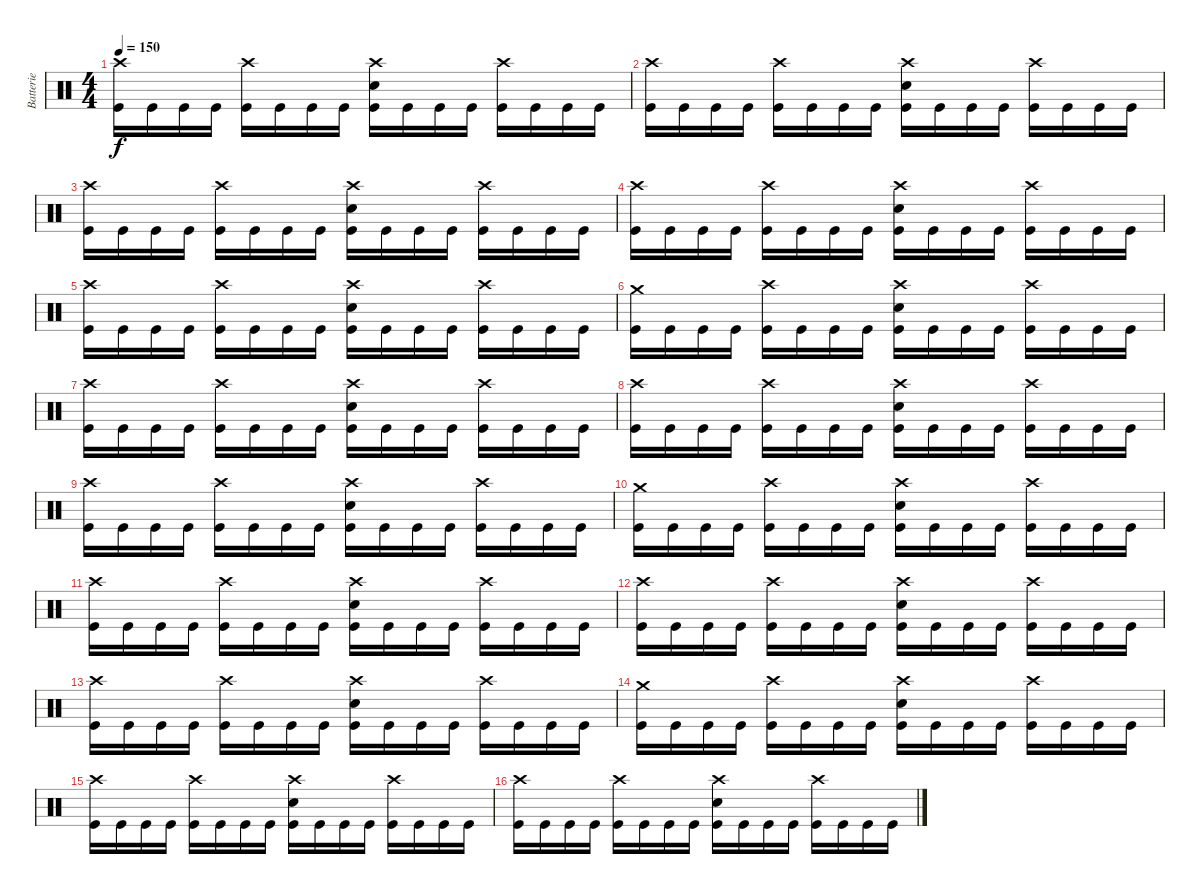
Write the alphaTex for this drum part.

\track ("Batterie" "Batterie") {instrument percussion}
\staff {score}
\articulation defaults
\ts (4 4)
\tempo 150
\clef neutral
\ks c
("Crash high (hit)" "Kick (hit)").16{dy f} "Kick (hit)".16 "Kick (hit)".16 "Kick (hit)".16 ("Crash high (hit)" "Kick (hit)").16 "Kick (hit)".16 "Kick (hit)".16 "Kick (hit)".16 ("Crash high (hit)" "Electric Snare (hit)" "Kick (hit)").16 "Kick (hit)".16 "Kick (hit)".16 "Kick (hit)".16 ("Crash high (hit)" "Kick (hit)").16 "Kick (hit)".16 "Kick (hit)".16 "Kick (hit)".16 |
("Crash high (hit)" "Kick (hit)").16 "Kick (hit)".16 "Kick (hit)".16 "Kick (hit)".16 ("Crash high (hit)" "Kick (hit)").16 "Kick (hit)".16 "Kick (hit)".16 "Kick (hit)".16 ("Crash high (hit)" "Electric Snare (hit)" "Kick (hit)").16 "Kick (hit)".16 "Kick (hit)".16 "Kick (hit)".16 ("Crash high (hit)" "Kick (hit)").16 "Kick (hit)".16 "Kick (hit)".16 "Kick (hit)".16 |
("Crash high (hit)" "Kick (hit)").16 "Kick (hit)".16 "Kick (hit)".16 "Kick (hit)".16 ("Crash high (hit)" "Kick (hit)").16 "Kick (hit)".16 "Kick (hit)".16 "Kick (hit)".16 ("Crash high (hit)" "Electric Snare (hit)" "Kick (hit)").16 "Kick (hit)".16 "Kick (hit)".16 "Kick (hit)".16 ("Crash high (hit)" "Kick (hit)").16 "Kick (hit)".16 "Kick (hit)".16 "Kick (hit)".16 |
("Crash high (hit)" "Kick (hit)").16 "Kick (hit)".16 "Kick (hit)".16 "Kick (hit)".16 ("Crash high (hit)" "Kick (hit)").16 "Kick (hit)".16 "Kick (hit)".16 "Kick (hit)".16 ("Crash high (hit)" "Electric Snare (hit)" "Kick (hit)").16 "Kick (hit)".16 "Kick (hit)".16 "Kick (hit)".16 ("Crash high (hit)" "Kick (hit)").16 "Kick (hit)".16 "Kick (hit)".16 "Kick (hit)".16 |
("Crash high (hit)" "Kick (hit)").16 "Kick (hit)".16 "Kick (hit)".16 "Kick (hit)".16 ("Crash high (hit)" "Kick (hit)").16 "Kick (hit)".16 "Kick (hit)".16 "Kick (hit)".16 ("Crash high (hit)" "Electric Snare (hit)" "Kick (hit)").16 "Kick (hit)".16 "Kick (hit)".16 "Kick (hit)".16 ("Crash high (hit)" "Kick (hit)").16 "Kick (hit)".16 "Kick (hit)".16 "Kick (hit)".16 |
("Crash medium (hit)" "Kick (hit)").16 "Kick (hit)".16 "Kick (hit)".16 "Kick (hit)".16 ("Crash high (hit)" "Kick (hit)").16 "Kick (hit)".16 "Kick (hit)".16 "Kick (hit)".16 ("Crash high (hit)" "Electric Snare (hit)" "Kick (hit)").16 "Kick (hit)".16 "Kick (hit)".16 "Kick (hit)".16 ("Crash high (hit)" "Kick (hit)").16 "Kick (hit)".16 "Kick (hit)".16 "Kick (hit)".16 |
("Crash high (hit)" "Kick (hit)").16 "Kick (hit)".16 "Kick (hit)".16 "Kick (hit)".16 ("Crash high (hit)" "Kick (hit)").16 "Kick (hit)".16 "Kick (hit)".16 "Kick (hit)".16 ("Crash high (hit)" "Electric Snare (hit)" "Kick (hit)").16 "Kick (hit)".16 "Kick (hit)".16 "Kick (hit)".16 ("Crash high (hit)" "Kick (hit)").16 "Kick (hit)".16 "Kick (hit)".16 "Kick (hit)".16 |
("Crash high (hit)" "Kick (hit)").16 "Kick (hit)".16 "Kick (hit)".16 "Kick (hit)".16 ("Crash high (hit)" "Kick (hit)").16 "Kick (hit)".16 "Kick (hit)".16 "Kick (hit)".16 ("Crash high (hit)" "Electric Snare (hit)" "Kick (hit)").16 "Kick (hit)".16 "Kick (hit)".16 "Kick (hit)".16 ("Crash high (hit)" "Kick (hit)").16 "Kick (hit)".16 "Kick (hit)".16 "Kick (hit)".16 |
("Crash high (hit)" "Kick (hit)").16 "Kick (hit)".16 "Kick (hit)".16 "Kick (hit)".16 ("Crash high (hit)" "Kick (hit)").16 "Kick (hit)".16 "Kick (hit)".16 "Kick (hit)".16 ("Crash high (hit)" "Electric Snare (hit)" "Kick (hit)").16 "Kick (hit)".16 "Kick (hit)".16 "Kick (hit)".16 ("Crash high (hit)" "Kick (hit)").16 "Kick (hit)".16 "Kick (hit)".16 "Kick (hit)".16 |
("Crash medium (hit)" "Kick (hit)").16 "Kick (hit)".16 "Kick (hit)".16 "Kick (hit)".16 ("Crash high (hit)" "Kick (hit)").16 "Kick (hit)".16 "Kick (hit)".16 "Kick (hit)".16 ("Crash high (hit)" "Electric Snare (hit)" "Kick (hit)").16 "Kick (hit)".16 "Kick (hit)".16 "Kick (hit)".16 ("Crash high (hit)" "Kick (hit)").16 "Kick (hit)".16 "Kick (hit)".16 "Kick (hit)".16 |
("Crash high (hit)" "Kick (hit)").16 "Kick (hit)".16 "Kick (hit)".16 "Kick (hit)".16 ("Crash high (hit)" "Kick (hit)").16 "Kick (hit)".16 "Kick (hit)".16 "Kick (hit)".16 ("Crash high (hit)" "Electric Snare (hit)" "Kick (hit)").16 "Kick (hit)".16 "Kick (hit)".16 "Kick (hit)".16 ("Crash high (hit)" "Kick (hit)").16 "Kick (hit)".16 "Kick (hit)".16 "Kick (hit)".16 |
("Crash high (hit)" "Kick (hit)").16 "Kick (hit)".16 "Kick (hit)".16 "Kick (hit)".16 ("Crash high (hit)" "Kick (hit)").16 "Kick (hit)".16 "Kick (hit)".16 "Kick (hit)".16 ("Crash high (hit)" "Electric Snare (hit)" "Kick (hit)").16 "Kick (hit)".16 "Kick (hit)".16 "Kick (hit)".16 ("Crash high (hit)" "Kick (hit)").16 "Kick (hit)".16 "Kick (hit)".16 "Kick (hit)".16 |
("Crash high (hit)" "Kick (hit)").16 "Kick (hit)".16 "Kick (hit)".16 "Kick (hit)".16 ("Crash high (hit)" "Kick (hit)").16 "Kick (hit)".16 "Kick (hit)".16 "Kick (hit)".16 ("Crash high (hit)" "Electric Snare (hit)" "Kick (hit)").16 "Kick (hit)".16 "Kick (hit)".16 "Kick (hit)".16 ("Crash high (hit)" "Kick (hit)").16 "Kick (hit)".16 "Kick (hit)".16 "Kick (hit)".16 |
("Crash medium (hit)" "Kick (hit)").16 "Kick (hit)".16 "Kick (hit)".16 "Kick (hit)".16 ("Crash high (hit)" "Kick (hit)").16 "Kick (hit)".16 "Kick (hit)".16 "Kick (hit)".16 ("Crash high (hit)" "Electric Snare (hit)" "Kick (hit)").16 "Kick (hit)".16 "Kick (hit)".16 "Kick (hit)".16 ("Crash high (hit)" "Kick (hit)").16 "Kick (hit)".16 "Kick (hit)".16 "Kick (hit)".16 |
("Crash high (hit)" "Kick (hit)").16 "Kick (hit)".16 "Kick (hit)".16 "Kick (hit)".16 ("Crash high (hit)" "Kick (hit)").16 "Kick (hit)".16 "Kick (hit)".16 "Kick (hit)".16 ("Crash high (hit)" "Electric Snare (hit)" "Kick (hit)").16 "Kick (hit)".16 "Kick (hit)".16 "Kick (hit)".16 ("Crash high (hit)" "Kick (hit)").16 "Kick (hit)".16 "Kick (hit)".16 "Kick (hit)".16 |
("Crash high (hit)" "Kick (hit)").16 "Kick (hit)".16 "Kick (hit)".16 "Kick (hit)".16 ("Crash high (hit)" "Kick (hit)").16 "Kick (hit)".16 "Kick (hit)".16 "Kick (hit)".16 ("Crash high (hit)" "Electric Snare (hit)" "Kick (hit)").16 "Kick (hit)".16 "Kick (hit)".16 "Kick (hit)".16 ("Crash high (hit)" "Kick (hit)").16 "Kick (hit)".16 "Kick (hit)".16 "Kick (hit)".16
